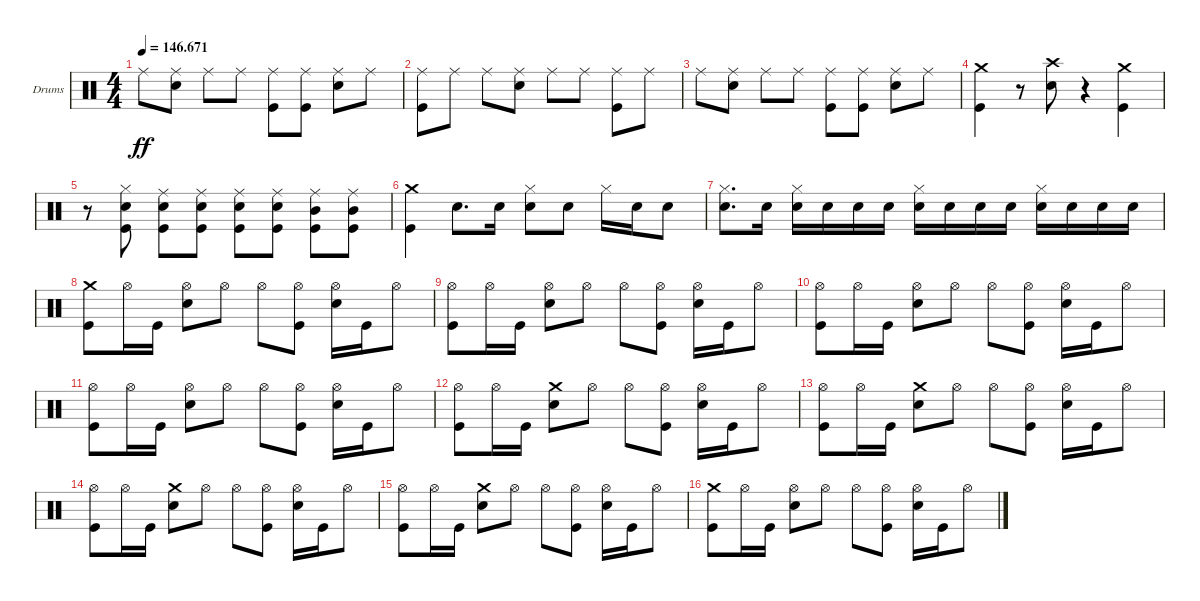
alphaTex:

\bracketExtendMode groupsimilarinstruments
\firstSystemTrackNameOrientation horizontal
\otherSystemsTrackNameOrientation horizontal
\track ("Drumkit" "Drums") {instrument percussion}
\staff {score}
\articulation defaults
\ts (4 4)
\tempo
146.671
\accidentals auto
\clef neutral
\ottava regular
\simile none
\ks c "Ride (middle)".8{dy ff}
("Ride (middle)" "Snare (hit) 2").8 "Ride (middle)".8 "Ride (middle)".8 ("Ride (middle)" "Kick (hit)").8 ("Ride (middle)" "Kick (hit)").8 ("Ride (middle)" "Snare (hit) 2").8 "Ride (middle)".8 |
("Ride (middle)" "Kick (hit)").8 "Ride (middle)".8 "Ride (middle)".8 ("Ride (middle)" "Snare (hit) 2").8 "Ride (middle)".8 "Ride (middle)".8 ("Ride (middle)" "Kick (hit)").8 "Ride (middle)".8 |
"Ride (middle)".8 ("Ride (middle)" "Snare (hit) 2").8 "Ride (middle)".8 "Ride (middle)".8 ("Ride (middle)" "Kick (hit)").8 ("Ride (middle)" "Kick (hit)").8 ("Ride (middle)" "Snare (hit) 2").8 "Ride (middle)".8 |
("Crash medium (hit)" "Kick (hit)").4 r.8 ("Crash high (hit)" "Snare (hit) 2").8 r.4 ("Crash medium (hit)" "Kick (hit)").4 |
r.8 ("Hi-Hat (closed)" "Snare (hit) 2" "Kick (hit)").8 ("Ride (middle)" "Snare (hit) 2" "Kick (hit)").8 ("Ride (middle)" "Snare (hit) 2" "Kick (hit)").8 ("Ride (middle)" "Snare (hit) 2" "Kick (hit)").8 ("Ride (middle)" "Snare (hit) 2" "Kick (hit)").8 ("Ride (middle)" "Mid Tom (hit)" "Kick (hit)").8 ("Ride (middle)" "Mid Tom (hit)" "Kick (hit)").8 |
("Crash medium (hit)" "Kick (hit)").4 "Snare (hit) 2".8{d} "Snare (hit) 2".16 ("Hi-Hat (closed)" "Snare (hit) 2").8 "Snare (hit) 2".8 "Hi-Hat (closed)".16 "Snare (hit) 2".16 "Snare (hit) 2".8 |
("Hi-Hat (closed)" "Snare (hit) 2").8{d} "Snare (hit) 2".16 ("Hi-Hat (closed)" "Snare (hit) 2").16 "Snare (hit) 2".16 "Snare (hit) 2".16 "Snare (hit) 2".16 ("Hi-Hat (closed)" "Snare (hit) 2").16 "Snare (hit) 2".16 "Snare (hit) 2".16 "Snare (hit) 2".16 ("Hi-Hat (closed)" "Snare (hit) 2").16 "Snare (hit) 2".16 "Snare (hit) 2".16 "Snare (hit) 2".16 |
("Crash medium (hit)" "Kick (hit)").8 "Hi-Hat (open)".16 "Kick (hit)".16 ("Hi-Hat (open)" "Snare (hit) 2").8 "Hi-Hat (open)".8 "Hi-Hat (open)".8 ("Hi-Hat (open)" "Kick (hit)").8 ("Hi-Hat (open)" "Snare (hit) 2").16 "Kick (hit)".16 "Hi-Hat (open)".8 |
("Hi-Hat (open)" "Kick (hit)").8 "Hi-Hat (open)".16 "Kick (hit)".16 ("Hi-Hat (open)" "Snare (hit) 2").8 "Hi-Hat (open)".8 "Hi-Hat (open)".8 ("Hi-Hat (open)" "Kick (hit)").8 ("Hi-Hat (open)" "Snare (hit) 2").16 "Kick (hit)".16 "Hi-Hat (open)".8 |
("Hi-Hat (open)" "Kick (hit)").8 "Hi-Hat (open)".16 "Kick (hit)".16 ("Hi-Hat (open)" "Snare (hit) 2").8 "Hi-Hat (open)".8 "Hi-Hat (open)".8 ("Hi-Hat (open)" "Kick (hit)").8 ("Hi-Hat (open)" "Snare (hit) 2").16 "Kick (hit)".16 "Hi-Hat (open)".8 |
("Hi-Hat (open)" "Kick (hit)").8 "Hi-Hat (open)".16 "Kick (hit)".16 ("Hi-Hat (open)" "Snare (hit) 2").8 "Hi-Hat (open)".8 "Hi-Hat (open)".8 ("Hi-Hat (open)" "Kick (hit)").8 ("Hi-Hat (open)" "Snare (hit) 2").16 "Kick (hit)".16 "Hi-Hat (open)".8 |
("Hi-Hat (open)" "Kick (hit)").8 "Hi-Hat (open)".16 "Kick (hit)".16 ("Crash medium (hit)" "Snare (hit) 2").8 "Hi-Hat (open)".8 "Hi-Hat (open)".8 ("Hi-Hat (open)" "Kick (hit)").8 ("Hi-Hat (open)" "Snare (hit) 2").16 "Kick (hit)".16 "Hi-Hat (open)".8 |
("Hi-Hat (open)" "Kick (hit)").8 "Hi-Hat (open)".16 "Kick (hit)".16 ("Crash medium (hit)" "Snare (hit) 2").8 "Hi-Hat (open)".8 "Hi-Hat (open)".8 ("Hi-Hat (open)" "Kick (hit)").8 ("Hi-Hat (open)" "Snare (hit) 2").16 "Kick (hit)".16 "Hi-Hat (open)".8 |
("Hi-Hat (open)" "Kick (hit)").8 "Hi-Hat (open)".16 "Kick (hit)".16 ("Crash medium (hit)" "Snare (hit) 2").8 "Hi-Hat (open)".8 "Hi-Hat (open)".8 ("Hi-Hat (open)" "Kick (hit)").8 ("Hi-Hat (open)" "Snare (hit) 2").16 "Kick (hit)".16 "Hi-Hat (open)".8 |
("Hi-Hat (open)" "Kick (hit)").8 "Hi-Hat (open)".16 "Kick (hit)".16 ("Crash medium (hit)" "Snare (hit) 2").8 "Hi-Hat (open)".8 "Hi-Hat (open)".8 ("Hi-Hat (open)" "Kick (hit)").8 ("Hi-Hat (open)" "Snare (hit) 2").16 "Kick (hit)".16 "Hi-Hat (open)".8 |
("Crash medium (hit)" "Kick (hit)").8 "Hi-Hat (open)".16 "Kick (hit)".16 ("Hi-Hat (open)" "Snare (hit) 2").8 "Hi-Hat (open)".8 "Hi-Hat (open)".8 ("Hi-Hat (open)" "Kick (hit)").8 ("Hi-Hat (open)" "Snare (hit) 2").16 "Kick (hit)".16 "Hi-Hat (open)".8
